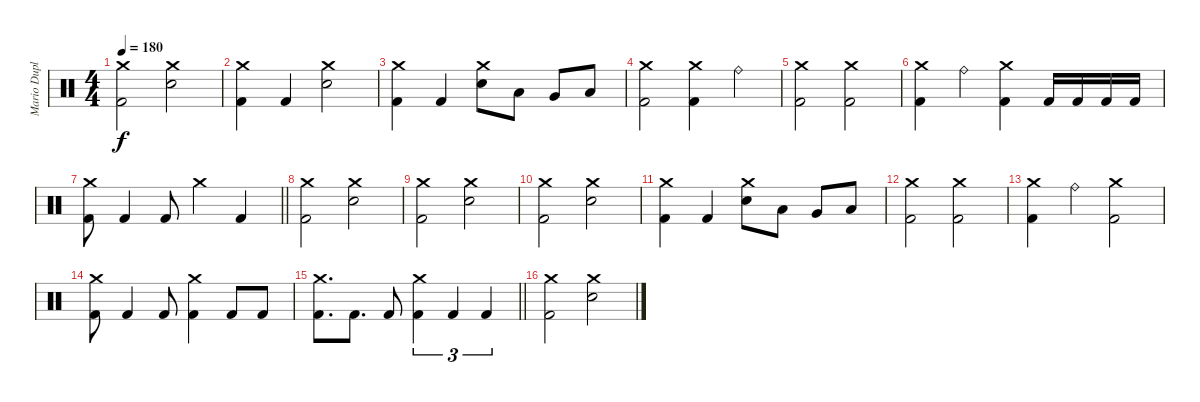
\track ("Mario Duplantier" "Mario Dupl") {instrument percussion}
\staff {score}
\articulation defaults
\ts (4 4)
\tempo 180
\clef neutral
\ks c
("Crash medium (hit)" "Kick (hit) 2").2{dy f} ("Crash medium (hit)" "Electric Snare (hit)").2 |
("Crash medium (hit)" "Kick (hit) 2").4 "Kick (hit) 2".4 ("Crash medium (hit)" "Electric Snare (hit)").2 |
("Crash medium (hit)" "Kick (hit) 2").4 "Kick (hit) 2".4 ("Crash medium (hit)" "Electric Snare (hit)").8 "Low Tom (hit)".8 "Very Low Tom (hit)".8 "Low Floor Tom (hit)".8 |
("Crash medium (hit)" "Kick (hit) 2").2 ("Crash medium (hit)" "Kick (hit) 2").4 "Ride (bell)".4 |
("Crash medium (hit)" "Kick (hit) 2").2 ("Crash medium (hit)" "Kick (hit) 2").2 |
("Crash medium (hit)" "Kick (hit) 2").4 "Ride (bell)".4 ("Crash medium (hit)" "Kick (hit) 2").4 "Kick (hit) 2".16 "Kick (hit) 2".16 "Kick (hit) 2".16 "Kick (hit) 2".16 |
\barLineRight lightlight
("Crash medium (hit)" "Kick (hit) 2").8 "Kick (hit) 2".4 "Kick (hit) 2".8 "Crash medium (hit)".4 "Kick (hit) 2".4 |
("Crash medium (hit)" "Kick (hit) 2").2 ("Crash medium (hit)" "Electric Snare (hit)").2 |
("Crash medium (hit)" "Kick (hit) 2").2 ("Crash medium (hit)" "Electric Snare (hit)").2 |
("Crash medium (hit)" "Kick (hit) 2").2 ("Crash medium (hit)" "Electric Snare (hit)").2 |
("Crash medium (hit)" "Kick (hit) 2").4 "Kick (hit) 2".4 ("Crash medium (hit)" "Electric Snare (hit)").8 "Low Tom (hit)".8 "Very Low Tom (hit)".8 "Low Floor Tom (hit)".8 |
("Crash medium (hit)" "Kick (hit) 2").2 ("Crash medium (hit)" "Kick (hit) 2").2 |
("Crash medium (hit)" "Kick (hit) 2").4 "Ride (bell)".4 ("Crash medium (hit)" "Kick (hit) 2").2 |
("Crash medium (hit)" "Kick (hit) 2").8 "Kick (hit) 2".4 "Kick (hit) 2".8 ("Crash medium (hit)" "Kick (hit) 2").4 "Kick (hit) 2".8 "Kick (hit) 2".8 |
\barLineRight lightlight
("Crash medium (hit)" "Kick (hit) 2").8{d} "Kick (hit) 2".8{d} "Kick (hit) 2".8 ("Crash medium (hit)" "Kick (hit) 2").4{tu (3 2)} "Kick (hit) 2".4{tu (3 2)} "Kick (hit) 2".4{tu (3 2)} |
("Crash medium (hit)" "Kick (hit) 2").2 ("Crash medium (hit)" "Electric Snare (hit)").2
